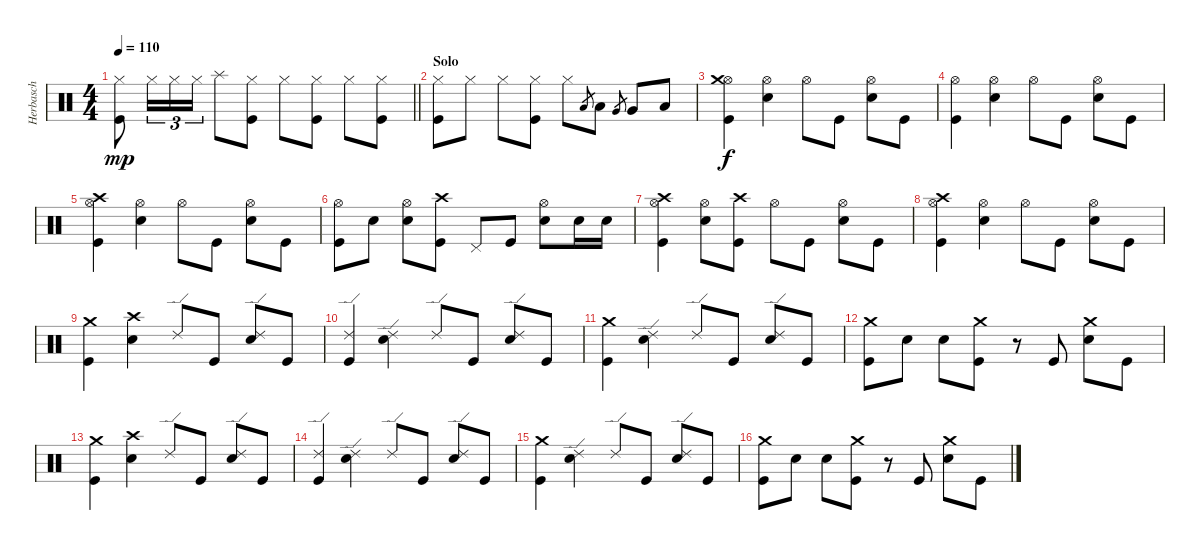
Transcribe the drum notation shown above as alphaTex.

\track ("Herbasch" "Herbasch") {instrument percussion}
\staff {score}
\articulation defaults
\ts (4 4)
\tempo 110
\clef neutral
\barLineRight lightlight
\ks c
("Hi-Hat (closed)" "Kick (hit)").8{dy mp} "Hi-Hat (closed)".16{tu (3 2)} "Hi-Hat (closed)".16{tu (3 2)} "Hi-Hat (closed)".16{tu (3 2)} "Splash (hit)".8 ("Hi-Hat (closed)" "Kick (hit)").8 "Hi-Hat (closed)".8 ("Hi-Hat (closed)" "Kick (hit)").8 "Hi-Hat (closed)".8 ("Hi-Hat (closed)" "Kick (hit)").8 |
\section ("" "Solo")
("Hi-Hat (closed)" "Kick (hit)").8 "Hi-Hat (closed)".8 "Hi-Hat (closed)".8 ("Hi-Hat (closed)" "Kick (hit)").8 "Hi-Hat (closed)".8 "Low Tom (hit)".8{gr} "Low Tom (hit)".8 "Very Low Tom (hit)".8{gr} "Very Low Tom (hit)".8 "Low Floor Tom (hit)".8 |
("Hi-Hat (open)" "Kick (hit)" "Crash medium (hit)").4{dy f} ("Hi-Hat (open)" "Electric Snare (hit)").4 "Hi-Hat (open)".8 "Kick (hit)".8 ("Hi-Hat (open)" "Electric Snare (hit)").8 "Kick (hit)".8 |
("Hi-Hat (open)" "Kick (hit)").4 ("Hi-Hat (open)" "Electric Snare (hit)").4 "Hi-Hat (open)".8 "Kick (hit)".8 ("Hi-Hat (open)" "Electric Snare (hit)").8 "Kick (hit)".8 |
("Hi-Hat (open)" "Kick (hit)" "Crash high (hit)").4 ("Hi-Hat (open)" "Electric Snare (hit)").4 "Hi-Hat (open)".8 "Kick (hit)".8 ("Hi-Hat (open)" "Electric Snare (hit)").8 "Kick (hit)".8 |
("Hi-Hat (open)" "Kick (hit)").8 "Electric Snare (hit)".8 ("Hi-Hat (open)" "Electric Snare (hit)").8 ("Kick (hit)" "Crash high (hit)").8 "Pedal Hi-Hat (hit)".8 "Kick (hit)".8 ("Hi-Hat (open)" "Electric Snare (hit)").8 "Electric Snare (hit)".16 "Electric Snare (hit)".16 |
("Hi-Hat (open)" "Kick (hit)" "Crash high (hit)").4 ("Hi-Hat (open)" "Electric Snare (hit)").8 ("Kick (hit)" "Crash high (hit)").8 "Hi-Hat (open)".8 "Kick (hit)".8 ("Hi-Hat (open)" "Electric Snare (hit)").8 "Kick (hit)".8 |
("Hi-Hat (open)" "Kick (hit)" "Crash high (hit)").4 ("Hi-Hat (open)" "Electric Snare (hit)").4 "Hi-Hat (open)".8 "Kick (hit)".8 ("Hi-Hat (open)" "Electric Snare (hit)").8 "Kick (hit)".8 |
("Kick (hit)" "Crash medium (hit)").4 ("Crash high (hit)" "Electric Snare (hit)").4 "Ride (edge) 2".8 "Kick (hit)".8 ("Electric Snare (hit)" "Ride (edge) 2").8 "Kick (hit)".8 |
("Kick (hit)" "Ride (edge) 2").4 ("Electric Snare (hit)" "Ride (edge) 2").4 "Ride (edge) 2".8 "Kick (hit)".8 ("Electric Snare (hit)" "Ride (edge) 2").8 "Kick (hit)".8 |
("Kick (hit)" "Crash medium (hit)").4 ("Electric Snare (hit)" "Ride (edge) 2").4 "Ride (edge) 2".8 "Kick (hit)".8 ("Electric Snare (hit)" "Ride (edge) 2").8 "Kick (hit)".8 |
("Kick (hit)" "Crash medium (hit)").8 "Electric Snare (hit)".8 "Electric Snare (hit)".8 ("Kick (hit)" "Crash medium (hit)").8 r.8 "Kick (hit)".8 ("Electric Snare (hit)" "Crash medium (hit)").8 "Kick (hit)".8 |
("Kick (hit)" "Crash medium (hit)").4 ("Crash high (hit)" "Electric Snare (hit)").4 "Ride (edge) 2".8 "Kick (hit)".8 ("Electric Snare (hit)" "Ride (edge) 2").8 "Kick (hit)".8 |
("Kick (hit)" "Ride (edge) 2").4 ("Electric Snare (hit)" "Ride (edge) 2").4 "Ride (edge) 2".8 "Kick (hit)".8 ("Electric Snare (hit)" "Ride (edge) 2").8 "Kick (hit)".8 |
("Kick (hit)" "Crash medium (hit)").4 ("Electric Snare (hit)" "Ride (edge) 2").4 "Ride (edge) 2".8 "Kick (hit)".8 ("Electric Snare (hit)" "Ride (edge) 2").8 "Kick (hit)".8 |
("Kick (hit)" "Crash medium (hit)").8 "Electric Snare (hit)".8 "Electric Snare (hit)".8 ("Kick (hit)" "Crash medium (hit)").8 r.8 "Kick (hit)".8 ("Electric Snare (hit)" "Crash medium (hit)").8 "Kick (hit)".8
